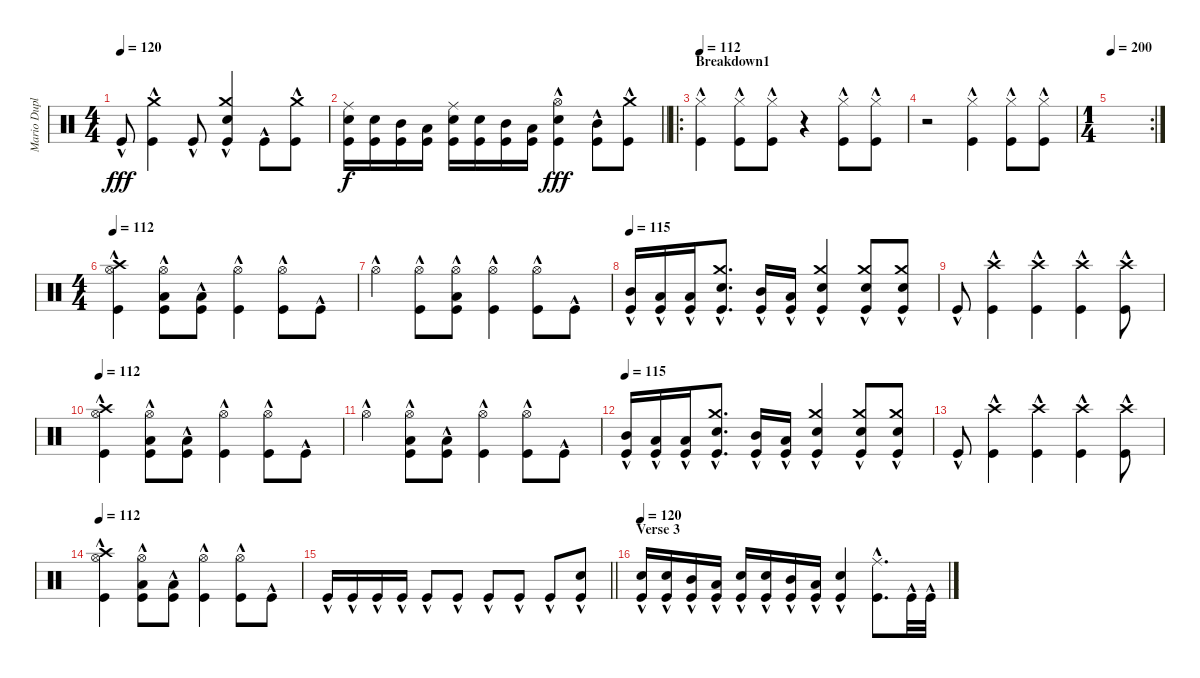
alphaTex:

\track ("Mario Duplantier" "Mario Dupl") {instrument percussion}
\staff {score}
\articulation defaults
\ts (4 4)
\tempo 120
\clef neutral
\ks c "Kick (hit)"{hac}.8{dy fff}
("Crash medium (hit)" "Kick (hit)"{hac}).4 "Kick (hit)"{hac}.8 ("Crash medium (hit)" "Electric Snare (hit)" "Kick (hit)"{hac}).4 "Kick (hit)"{hac}.8 ("Crash medium (hit)" "Kick (hit)"{hac}).8 |
\barLineRight lightlight
("Ride (middle)" "Electric Snare (hit)" "Kick (hit)").16{dy f} ("Electric Snare (hit)" "Kick (hit)").16 ("Mid Tom (hit)" "Kick (hit)").16 ("Low Tom (hit)" "Kick (hit)").16 ("Ride (middle)" "Electric Snare (hit)" "Kick (hit)").16 ("Electric Snare (hit)" "Kick (hit)").16 ("Mid Tom (hit)" "Kick (hit)").16 ("Low Tom (hit)" "Kick (hit)").16 ("Hi-Hat (open)" "Electric Snare (hit)" "Kick (hit)"{hac}).4{dy fff} ("Mid Tom (hit)" "Kick (hit)"{hac}).8 ("Crash medium (hit)" "Kick (hit)"{hac}).8 |
\ro
\section ("" "Breakdown1")
\tempo 112
("Hi-Hat (closed)"{hac} "Kick (hit)"{hac}).4 ("Hi-Hat (closed)"{hac} "Kick (hit)"{hac}).8 ("Hi-Hat (closed)"{hac} "Kick (hit)"{hac}).8 r.4 ("Hi-Hat (closed)"{hac} "Kick (hit)"{hac}).8 ("Hi-Hat (closed)"{hac} "Kick (hit)"{hac}).8 |
r.2 ("Hi-Hat (closed)"{hac} "Kick (hit)"{hac}).4 ("Hi-Hat (closed)"{hac} "Kick (hit)"{hac}).8 ("Hi-Hat (closed)"{hac} "Kick (hit)"{hac}).8 |
\rc 2
\ts (1 4)
\tempo 200
|
\ts (4 4)
\tempo 112
("Crash high (hit)" "Hi-Hat (open)"{hac} "Kick (hit)"{hac}).4 ("Hi-Hat (open)"{hac} "Low Tom (hit)" "Kick (hit)"{hac}).8 ("Low Tom (hit)" "Kick (hit)"{hac}).8 ("Hi-Hat (open)"{hac} "Kick (hit)"{hac}).4 ("Hi-Hat (open)"{hac} "Kick (hit)"{hac}).8 "Kick (hit)"{hac}.8 |
"Hi-Hat (open)"{hac}.4 ("Hi-Hat (open)" "Kick (hit)"{hac}).8 ("Hi-Hat (open)" "Low Tom (hit)" "Kick (hit)"{hac}).8 ("Hi-Hat (open)"{hac} "Kick (hit)"{hac}).4 ("Hi-Hat (open)"{hac} "Kick (hit)"{hac}).8 "Kick (hit)"{hac}.8 |
\tempo 115
("Mid Tom (hit)" "Kick (hit)"{hac}).16 ("Low Tom (hit)" "Kick (hit)"{hac}).16 ("Low Tom (hit)" "Kick (hit)"{hac}).16 ("Crash medium (hit)" "Electric Snare (hit)" "Kick (hit)"{hac}).8{d} ("Mid Tom (hit)" "Kick (hit)"{hac}).16 ("Low Tom (hit)" "Kick (hit)"{hac}).16 ("Crash medium (hit)" "Electric Snare (hit)" "Kick (hit)"{hac}).4 ("Crash medium (hit)" "Electric Snare (hit)" "Kick (hit)"{hac}).8 ("Crash medium (hit)" "Electric Snare (hit)" "Kick (hit)"{hac}).8 |
"Kick (hit)"{hac}.8 ("Crash high (hit)" "Kick (hit)"{hac}).4 ("Crash high (hit)" "Kick (hit)"{hac}).4 ("Crash high (hit)" "Kick (hit)"{hac}).4 ("Crash high (hit)" "Kick (hit)"{hac}).8 |
\tempo 112
("Crash high (hit)" "Hi-Hat (open)"{hac} "Kick (hit)"{hac}).4 ("Hi-Hat (open)"{hac} "Low Tom (hit)" "Kick (hit)"{hac}).8 ("Low Tom (hit)" "Kick (hit)"{hac}).8 ("Hi-Hat (open)"{hac} "Kick (hit)"{hac}).4 ("Hi-Hat (open)"{hac} "Kick (hit)"{hac}).8 "Kick (hit)"{hac}.8 |
"Hi-Hat (open)"{hac}.4 ("Hi-Hat (open)"{hac} "Low Tom (hit)" "Kick (hit)"{hac}).8 ("Low Tom (hit)" "Kick (hit)"{hac}).8 ("Hi-Hat (open)"{hac} "Kick (hit)"{hac}).4 ("Hi-Hat (open)"{hac} "Kick (hit)"{hac}).8 "Kick (hit)"{hac}.8 |
\tempo 115
("Mid Tom (hit)" "Kick (hit)"{hac}).16 ("Low Tom (hit)" "Kick (hit)"{hac}).16 ("Low Tom (hit)" "Kick (hit)"{hac}).16 ("Crash medium (hit)" "Electric Snare (hit)" "Kick (hit)"{hac}).8{d} ("Mid Tom (hit)" "Kick (hit)"{hac}).16 ("Low Tom (hit)" "Kick (hit)"{hac}).16 ("Crash medium (hit)" "Electric Snare (hit)" "Kick (hit)"{hac}).4 ("Crash medium (hit)" "Electric Snare (hit)" "Kick (hit)"{hac}).8 ("Crash medium (hit)" "Electric Snare (hit)" "Kick (hit)"{hac}).8 |
"Kick (hit)"{hac}.8 ("Crash high (hit)" "Kick (hit)"{hac}).4 ("Crash high (hit)" "Kick (hit)"{hac}).4 ("Crash high (hit)" "Kick (hit)"{hac}).4 ("Crash high (hit)" "Kick (hit)"{hac}).8 |
\tempo 112
("Crash high (hit)" "Hi-Hat (open)"{hac} "Kick (hit)"{hac}).4 ("Hi-Hat (open)"{hac} "Low Tom (hit)" "Kick (hit)"{hac}).8 ("Low Tom (hit)" "Kick (hit)"{hac}).8 ("Hi-Hat (open)"{hac} "Kick (hit)"{hac}).4 ("Hi-Hat (open)"{hac} "Kick (hit)"{hac}).8 "Kick (hit)"{hac}.8 |
\barLineRight lightlight "Kick (hit)"{hac}.16 "Kick (hit)"{hac}.16 "Kick (hit)"{hac}.16 "Kick (hit)"{hac}.16 "Kick (hit)"{hac}.8 "Kick (hit)"{hac}.8 "Kick (hit)"{hac}.8 "Kick (hit)"{hac}.8 "Kick (hit)"{hac}.8
("Electric Snare (hit)" "Kick (hit)"{hac}).8 |
\section ("" "Verse 3")
\tempo 120
("Electric Snare (hit)" "Kick (hit)"{hac}).16 ("Electric Snare (hit)" "Kick (hit)"{hac}).16 ("Mid Tom (hit)" "Kick (hit)"{hac}).16 ("Low Tom (hit)" "Kick (hit)"{hac}).16 ("Electric Snare (hit)" "Kick (hit)"{hac}).16 ("Electric Snare (hit)" "Kick (hit)"{hac}).16 ("Mid Tom (hit)" "Kick (hit)"{hac}).16 ("Low Tom (hit)" "Kick (hit)"{hac}).16 ("Electric Snare (hit)" "Kick (hit)"{hac}).4 ("Ride (middle)" "Kick (hit)"{hac}).8{d} "Kick (hit)"{hac}.32 "Kick (hit)"{hac}.32
